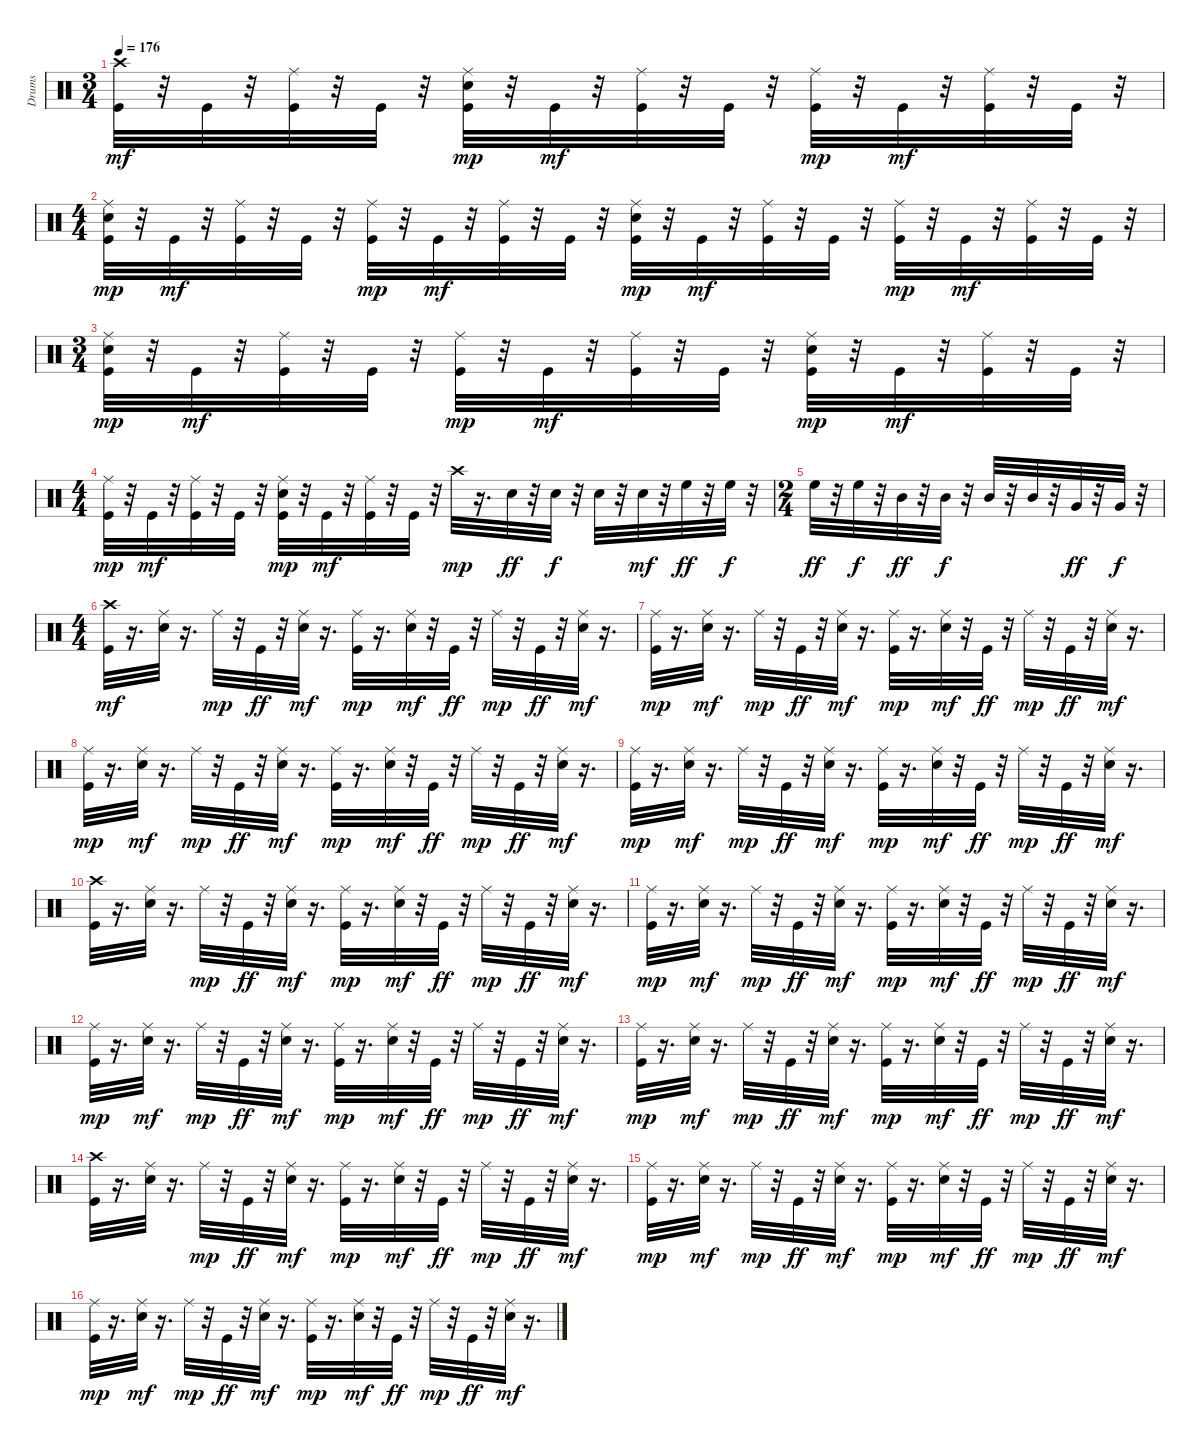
\track ("Drums" "Drums") {instrument percussion}
\staff {score}
\articulation defaults
\ts (3 4)
\tempo 176
\clef neutral
\ks c
("Kick (hit)" "Crash high (hit)").32{dy mf} r.32 "Kick (hit)".32 r.32 ("Kick (hit)" "Ride (middle)").32 r.32 "Kick (hit)".32 r.32 ("Kick (hit)" "Snare (hit) 2" "Ride (middle)").32{dy mp} r.32 "Kick (hit)".32{dy mf} r.32 ("Kick (hit)" "Ride (middle)").32 r.32 "Kick (hit)".32 r.32 ("Kick (hit)" "Ride (middle)").32{dy mp} r.32 "Kick (hit)".32{dy mf} r.32 ("Kick (hit)" "Ride (middle)").32 r.32 "Kick (hit)".32 r.32 |
\ts (4 4)
("Kick (hit)" "Snare (hit) 2" "Ride (middle)").32{dy mp} r.32 "Kick (hit)".32{dy mf} r.32 ("Kick (hit)" "Ride (middle)").32 r.32 "Kick (hit)".32 r.32 ("Kick (hit)" "Ride (middle)").32{dy mp} r.32 "Kick (hit)".32{dy mf} r.32 ("Kick (hit)" "Ride (middle)").32 r.32 "Kick (hit)".32 r.32 ("Kick (hit)" "Snare (hit) 2" "Ride (middle)").32{dy mp} r.32 "Kick (hit)".32{dy mf} r.32 ("Kick (hit)" "Ride (middle)").32 r.32 "Kick (hit)".32 r.32 ("Kick (hit)" "Ride (middle)").32{dy mp} r.32 "Kick (hit)".32{dy mf} r.32 ("Kick (hit)" "Ride (middle)").32 r.32 "Kick (hit)".32 r.32 |
\ts (3 4)
("Kick (hit)" "Snare (hit) 2" "Ride (middle)").32{dy mp} r.32 "Kick (hit)".32{dy mf} r.32 ("Kick (hit)" "Ride (middle)").32 r.32 "Kick (hit)".32 r.32 ("Kick (hit)" "Ride (middle)").32{dy mp} r.32 "Kick (hit)".32{dy mf} r.32 ("Kick (hit)" "Ride (middle)").32 r.32 "Kick (hit)".32 r.32 ("Kick (hit)" "Snare (hit) 2" "Ride (middle)").32{dy mp} r.32 "Kick (hit)".32{dy mf} r.32 ("Kick (hit)" "Ride (middle)").32 r.32 "Kick (hit)".32 r.32 |
\ts (4 4)
("Kick (hit)" "Ride (middle)").32{dy mp} r.32 "Kick (hit)".32{dy mf} r.32 ("Kick (hit)" "Ride (middle)").32 r.32 "Kick (hit)".32 r.32 ("Kick (hit)" "Snare (hit) 2" "Ride (middle)").32{dy mp} r.32 "Kick (hit)".32{dy mf} r.32 ("Kick (hit)" "Ride (middle)").32 r.32 "Kick (hit)".32 r.32 "Crash high (hit)".32{dy mp} r.16{d} "Snare (hit) 2".32{dy ff} r.32 "Snare (hit) 2".32{dy f} r.32 "Snare (hit) 2".32 r.32 "Snare (hit) 2".32{dy mf} r.32 "High Floor Tom (hit)".32{dy ff} r.32 "High Floor Tom (hit)".32{dy f} r.32 |
\ts (2 4)
"High Floor Tom (hit)".32{dy ff} r.32 "High Floor Tom (hit)".32{dy f} r.32 "Mid Tom (hit)".32{dy ff} r.32 "Mid Tom (hit)".32{dy f} r.32 "Mid Tom (hit)".32 r.32 "Mid Tom (hit)".32 r.32 "Very Low Tom (hit)".32{dy ff} r.32 "Very Low Tom (hit)".32{dy f} r.32 |
\ts (4 4)
("Kick (hit)" "Crash high (hit)").32{dy mf} r.16{d} ("Snare (hit) 2" "Ride (middle)").32 r.16{d} "Ride (middle)".32{dy mp} r.32 "Kick (hit)".32{dy ff} r.32 ("Snare (hit) 2" "Ride (middle)").32{dy mf} r.16{d} ("Kick (hit)" "Ride (middle)").32{dy mp} r.16{d} ("Snare (hit) 2" "Ride (middle)").32{dy mf} r.32 "Kick (hit)".32{dy ff} r.32 "Ride (middle)".32{dy mp} r.32 "Kick (hit)".32{dy ff} r.32 ("Snare (hit) 2" "Ride (middle)").32{dy mf} r.16{d} |
("Kick (hit)" "Ride (middle)").32{dy mp} r.16{d} ("Snare (hit) 2" "Ride (middle)").32{dy mf} r.16{d} "Ride (middle)".32{dy mp} r.32 "Kick (hit)".32{dy ff} r.32 ("Snare (hit) 2" "Ride (middle)").32{dy mf} r.16{d} ("Kick (hit)" "Ride (middle)").32{dy mp} r.16{d} ("Snare (hit) 2" "Ride (middle)").32{dy mf} r.32 "Kick (hit)".32{dy ff} r.32 "Ride (middle)".32{dy mp} r.32 "Kick (hit)".32{dy ff} r.32 ("Snare (hit) 2" "Ride (middle)").32{dy mf} r.16{d} |
("Kick (hit)" "Ride (middle)").32{dy mp} r.16{d} ("Snare (hit) 2" "Ride (middle)").32{dy mf} r.16{d} "Ride (middle)".32{dy mp} r.32 "Kick (hit)".32{dy ff} r.32 ("Snare (hit) 2" "Ride (middle)").32{dy mf} r.16{d} ("Kick (hit)" "Ride (middle)").32{dy mp} r.16{d} ("Snare (hit) 2" "Ride (middle)").32{dy mf} r.32 "Kick (hit)".32{dy ff} r.32 "Ride (middle)".32{dy mp} r.32 "Kick (hit)".32{dy ff} r.32 ("Snare (hit) 2" "Ride (middle)").32{dy mf} r.16{d} |
("Kick (hit)" "Ride (middle)").32{dy mp} r.16{d} ("Snare (hit) 2" "Ride (middle)").32{dy mf} r.16{d} "Ride (middle)".32{dy mp} r.32 "Kick (hit)".32{dy ff} r.32 ("Snare (hit) 2" "Ride (middle)").32{dy mf} r.16{d} ("Kick (hit)" "Ride (middle)").32{dy mp} r.16{d} ("Snare (hit) 2" "Ride (middle)").32{dy mf} r.32 "Kick (hit)".32{dy ff} r.32 "Ride (middle)".32{dy mp} r.32 "Kick (hit)".32{dy ff} r.32 ("Snare (hit) 2" "Ride (middle)").32{dy mf} r.16{d} |
("Kick (hit)" "Crash high (hit)").32 r.16{d} ("Snare (hit) 2" "Ride (middle)").32 r.16{d} "Ride (middle)".32{dy mp} r.32 "Kick (hit)".32{dy ff} r.32 ("Snare (hit) 2" "Ride (middle)").32{dy mf} r.16{d} ("Kick (hit)" "Ride (middle)").32{dy mp} r.16{d} ("Snare (hit) 2" "Ride (middle)").32{dy mf} r.32 "Kick (hit)".32{dy ff} r.32 "Ride (middle)".32{dy mp} r.32 "Kick (hit)".32{dy ff} r.32 ("Snare (hit) 2" "Ride (middle)").32{dy mf} r.16{d} |
("Kick (hit)" "Ride (middle)").32{dy mp} r.16{d} ("Snare (hit) 2" "Ride (middle)").32{dy mf} r.16{d} "Ride (middle)".32{dy mp} r.32 "Kick (hit)".32{dy ff} r.32 ("Snare (hit) 2" "Ride (middle)").32{dy mf} r.16{d} ("Kick (hit)" "Ride (middle)").32{dy mp} r.16{d} ("Snare (hit) 2" "Ride (middle)").32{dy mf} r.32 "Kick (hit)".32{dy ff} r.32 "Ride (middle)".32{dy mp} r.32 "Kick (hit)".32{dy ff} r.32 ("Snare (hit) 2" "Ride (middle)").32{dy mf} r.16{d} |
("Kick (hit)" "Ride (middle)").32{dy mp} r.16{d} ("Snare (hit) 2" "Ride (middle)").32{dy mf} r.16{d} "Ride (middle)".32{dy mp} r.32 "Kick (hit)".32{dy ff} r.32 ("Snare (hit) 2" "Ride (middle)").32{dy mf} r.16{d} ("Kick (hit)" "Ride (middle)").32{dy mp} r.16{d} ("Snare (hit) 2" "Ride (middle)").32{dy mf} r.32 "Kick (hit)".32{dy ff} r.32 "Ride (middle)".32{dy mp} r.32 "Kick (hit)".32{dy ff} r.32 ("Snare (hit) 2" "Ride (middle)").32{dy mf} r.16{d} |
("Kick (hit)" "Ride (middle)").32{dy mp} r.16{d} ("Snare (hit) 2" "Ride (middle)").32{dy mf} r.16{d} "Ride (middle)".32{dy mp} r.32 "Kick (hit)".32{dy ff} r.32 ("Snare (hit) 2" "Ride (middle)").32{dy mf} r.16{d} ("Kick (hit)" "Ride (middle)").32{dy mp} r.16{d} ("Snare (hit) 2" "Ride (middle)").32{dy mf} r.32 "Kick (hit)".32{dy ff} r.32 "Ride (middle)".32{dy mp} r.32 "Kick (hit)".32{dy ff} r.32 ("Snare (hit) 2" "Ride (middle)").32{dy mf} r.16{d} |
("Kick (hit)" "Crash high (hit)").32 r.16{d} ("Snare (hit) 2" "Ride (middle)").32 r.16{d} "Ride (middle)".32{dy mp} r.32 "Kick (hit)".32{dy ff} r.32 ("Snare (hit) 2" "Ride (middle)").32{dy mf} r.16{d} ("Kick (hit)" "Ride (middle)").32{dy mp} r.16{d} ("Snare (hit) 2" "Ride (middle)").32{dy mf} r.32 "Kick (hit)".32{dy ff} r.32 "Ride (middle)".32{dy mp} r.32 "Kick (hit)".32{dy ff} r.32 ("Snare (hit) 2" "Ride (middle)").32{dy mf} r.16{d} |
("Kick (hit)" "Ride (middle)").32{dy mp} r.16{d} ("Snare (hit) 2" "Ride (middle)").32{dy mf} r.16{d} "Ride (middle)".32{dy mp} r.32 "Kick (hit)".32{dy ff} r.32 ("Snare (hit) 2" "Ride (middle)").32{dy mf} r.16{d} ("Kick (hit)" "Ride (middle)").32{dy mp} r.16{d} ("Snare (hit) 2" "Ride (middle)").32{dy mf} r.32 "Kick (hit)".32{dy ff} r.32 "Ride (middle)".32{dy mp} r.32 "Kick (hit)".32{dy ff} r.32 ("Snare (hit) 2" "Ride (middle)").32{dy mf} r.16{d} |
("Kick (hit)" "Ride (middle)").32{dy mp} r.16{d} ("Snare (hit) 2" "Ride (middle)").32{dy mf} r.16{d} "Ride (middle)".32{dy mp} r.32 "Kick (hit)".32{dy ff} r.32 ("Snare (hit) 2" "Ride (middle)").32{dy mf} r.16{d} ("Kick (hit)" "Ride (middle)").32{dy mp} r.16{d} ("Snare (hit) 2" "Ride (middle)").32{dy mf} r.32 "Kick (hit)".32{dy ff} r.32 "Ride (middle)".32{dy mp} r.32 "Kick (hit)".32{dy ff} r.32 ("Snare (hit) 2" "Ride (middle)").32{dy mf} r.16{d}
